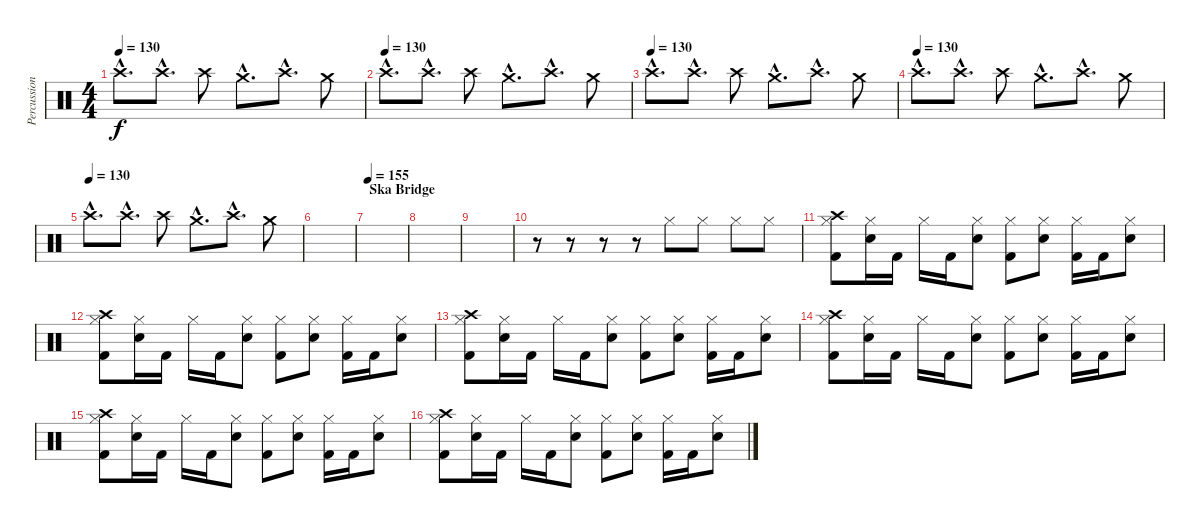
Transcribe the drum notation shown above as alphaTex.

\track ("Percussion" "Percussion") {instrument percussion}
\staff {score}
\articulation defaults
\ts (4 4)
\tempo 130
\clef neutral
\ks c "Crash high (hit)"{hac}.8{d dy f volume 13} "Crash high (hit)"{hac}.8{d} "Crash high (hit)".8 "Crash medium (hit)"{hac}.8{d volume 8} "Crash high (hit)"{hac}.8{d} "Crash medium (hit)".8
|
\tempo (130)
"Crash high (hit)"{hac}.8{d volume 13} "Crash high (hit)"{hac}.8{d} "Crash high (hit)".8 "Crash medium (hit)"{hac}.8{d volume 8} "Crash high (hit)"{hac}.8{d} "Crash medium (hit)".8 |
\tempo (130)
"Crash high (hit)"{hac}.8{d volume 13} "Crash high (hit)"{hac}.8{d} "Crash high (hit)".8 "Crash medium (hit)"{hac}.8{d volume 8} "Crash high (hit)"{hac}.8{d} "Crash medium (hit)".8 |
\tempo (130)
"Crash high (hit)"{hac}.8{d volume 13} "Crash high (hit)"{hac}.8{d} "Crash high (hit)".8 "Crash medium (hit)"{hac}.8{d volume 8} "Crash high (hit)"{hac}.8{d} "Crash medium (hit)".8 |
\tempo (130)
"Crash high (hit)"{hac}.8{d volume 13} "Crash high (hit)"{hac}.8{d} "Crash high (hit)".8 "Crash medium (hit)"{hac}.8{d volume 8} "Crash high (hit)"{hac}.8{d} "Crash medium (hit)".8 |
|
\section ("" "Ska Bridge")
\tempo 155
|
|
|
r.8 r.8 r.8 r.8 "Hi-Hat (closed)".8 "Hi-Hat (closed)".8 "Hi-Hat (closed)".8 "Hi-Hat (closed)".8 |
("Crash high (hit)" "Hi-Hat (closed)" "Kick (hit) 2").8 ("Hi-Hat (closed)" "Electric Snare (hit)").16 "Kick (hit) 2".16 "Hi-Hat (closed)".16 "Kick (hit) 2".16 ("Hi-Hat (closed)" "Electric Snare (hit)").8 ("Hi-Hat (closed)" "Kick (hit) 2").8 ("Hi-Hat (closed)" "Electric Snare (hit)").8 ("Hi-Hat (closed)" "Kick (hit) 2").16 "Kick (hit) 2".16 ("Hi-Hat (closed)" "Electric Snare (hit)").8 |
("Crash high (hit)" "Hi-Hat (closed)" "Kick (hit) 2").8 ("Hi-Hat (closed)" "Electric Snare (hit)").16 "Kick (hit) 2".16 "Hi-Hat (closed)".16 "Kick (hit) 2".16 ("Hi-Hat (closed)" "Electric Snare (hit)").8 ("Hi-Hat (closed)" "Kick (hit) 2").8 ("Hi-Hat (closed)" "Electric Snare (hit)").8 ("Hi-Hat (closed)" "Kick (hit) 2").16 "Kick (hit) 2".16 ("Hi-Hat (closed)" "Electric Snare (hit)").8 |
("Crash high (hit)" "Hi-Hat (closed)" "Kick (hit) 2").8 ("Hi-Hat (closed)" "Electric Snare (hit)").16 "Kick (hit) 2".16 "Hi-Hat (closed)".16 "Kick (hit) 2".16 ("Hi-Hat (closed)" "Electric Snare (hit)").8 ("Hi-Hat (closed)" "Kick (hit) 2").8 ("Hi-Hat (closed)" "Electric Snare (hit)").8 ("Hi-Hat (closed)" "Kick (hit) 2").16 "Kick (hit) 2".16 ("Hi-Hat (closed)" "Electric Snare (hit)").8 |
("Crash high (hit)" "Hi-Hat (closed)" "Kick (hit) 2").8 ("Hi-Hat (closed)" "Electric Snare (hit)").16 "Kick (hit) 2".16 "Hi-Hat (closed)".16 "Kick (hit) 2".16 ("Hi-Hat (closed)" "Electric Snare (hit)").8 ("Hi-Hat (closed)" "Kick (hit) 2").8 ("Hi-Hat (closed)" "Electric Snare (hit)").8 ("Hi-Hat (closed)" "Kick (hit) 2").16 "Kick (hit) 2".16 ("Hi-Hat (closed)" "Electric Snare (hit)").8 |
("Crash high (hit)" "Hi-Hat (closed)" "Kick (hit) 2").8 ("Hi-Hat (closed)" "Electric Snare (hit)").16 "Kick (hit) 2".16 "Hi-Hat (closed)".16 "Kick (hit) 2".16 ("Hi-Hat (closed)" "Electric Snare (hit)").8 ("Hi-Hat (closed)" "Kick (hit) 2").8 ("Hi-Hat (closed)" "Electric Snare (hit)").8 ("Hi-Hat (closed)" "Kick (hit) 2").16 "Kick (hit) 2".16 ("Hi-Hat (closed)" "Electric Snare (hit)").8 |
("Crash high (hit)" "Hi-Hat (closed)" "Kick (hit) 2").8 ("Hi-Hat (closed)" "Electric Snare (hit)").16 "Kick (hit) 2".16 "Hi-Hat (closed)".16 "Kick (hit) 2".16 ("Hi-Hat (closed)" "Electric Snare (hit)").8 ("Hi-Hat (closed)" "Kick (hit) 2").8 ("Hi-Hat (closed)" "Electric Snare (hit)").8 ("Hi-Hat (closed)" "Kick (hit) 2").16 "Kick (hit) 2".16 ("Hi-Hat (closed)" "Electric Snare (hit)").8
